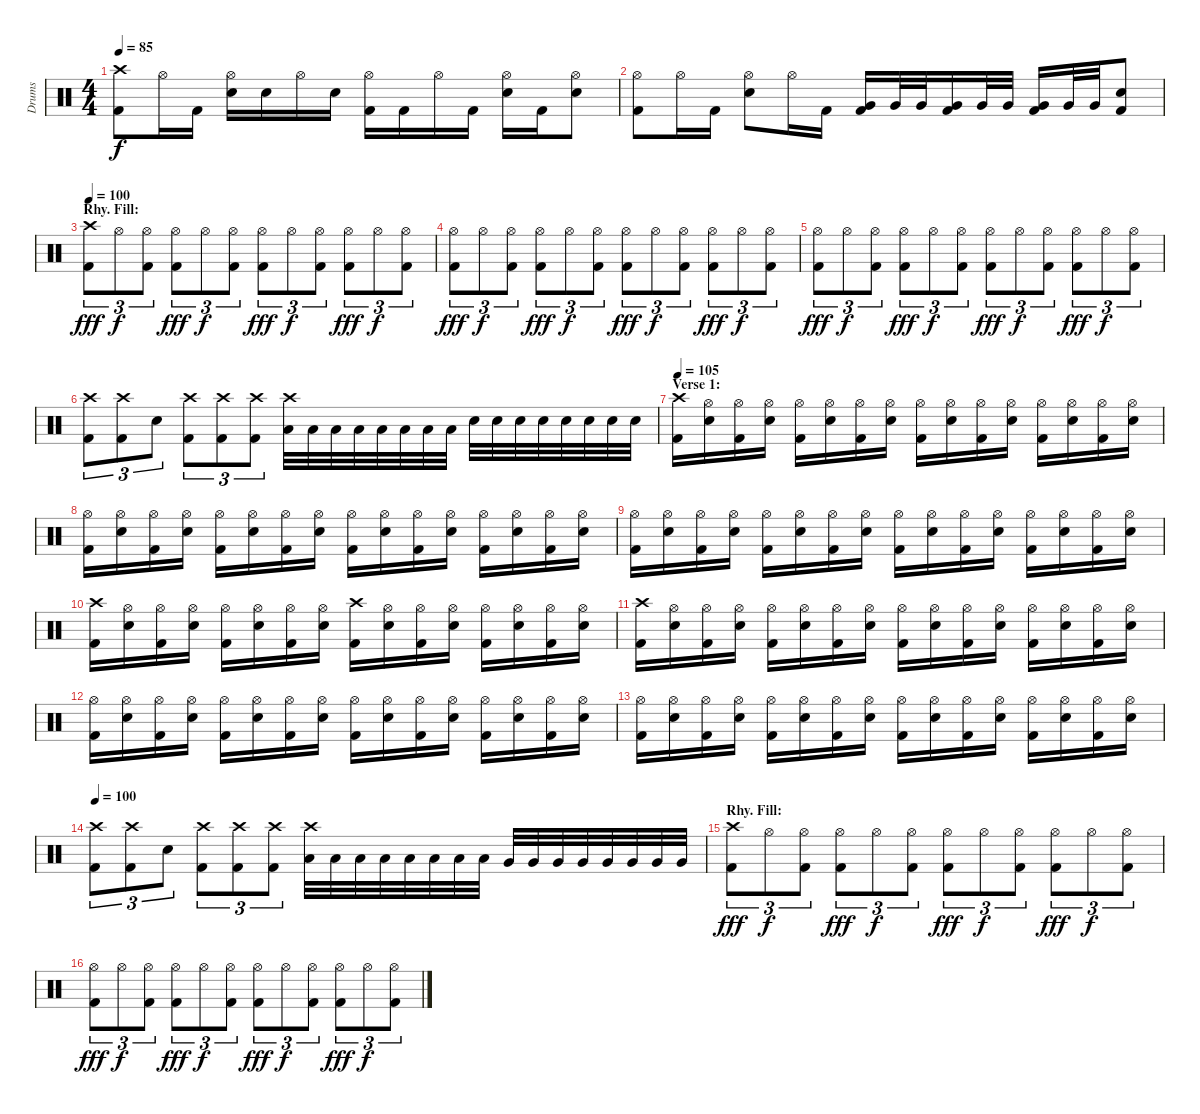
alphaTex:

\track ("Drums" "Drums") {instrument percussion}
\staff {score}
\articulation defaults
\ts (4 4)
\tempo 85
\clef neutral
\ks c
("Crash high (hit)" "Kick (hit) 2").8{dy f} "Hi-Hat (open)".16 "Kick (hit) 2".16 ("Hi-Hat (open)" "Electric Snare (hit)").16 "Electric Snare (hit)".16 "Hi-Hat (open)".16 "Electric Snare (hit)".16 ("Hi-Hat (open)" "Kick (hit) 2").16 "Kick (hit) 2".16 "Hi-Hat (open)".16 "Kick (hit) 2".16 ("Hi-Hat (open)" "Electric Snare (hit)").16 "Kick (hit) 2".16 ("Hi-Hat (open)" "Electric Snare (hit)").8 |
("Hi-Hat (open)" "Kick (hit) 2").8 "Hi-Hat (open)".16 "Kick (hit) 2".16 ("Hi-Hat (open)" "Electric Snare (hit)").8 "Hi-Hat (open)".16 "Kick (hit) 2".16 ("Very Low Tom (hit)" "Kick (hit) 2").16 "Very Low Tom (hit)".32 "Very Low Tom (hit)".32 ("Very Low Tom (hit)" "Kick (hit) 2").16 "Very Low Tom (hit)".32 "Very Low Tom (hit)".32 ("Very Low Tom (hit)" "Kick (hit) 2").16 "Very Low Tom (hit)".32 "Very Low Tom (hit)".32 ("Electric Snare (hit)" "Kick (hit) 2").8 |
\section ("" "Rhy. Fill:")
\tempo 100
("Crash high (hit)" "Kick (hit) 2").8{tu (3 2) dy fff} "Hi-Hat (open)".8{tu (3 2) dy f} ("Hi-Hat (open)" "Kick (hit) 2").8{tu (3 2)} ("Hi-Hat (open)" "Kick (hit) 2").8{tu (3 2) dy fff} "Hi-Hat (open)".8{tu (3 2) dy f} ("Hi-Hat (open)" "Kick (hit) 2").8{tu (3 2)} ("Hi-Hat (open)" "Kick (hit) 2").8{tu (3 2) dy fff} "Hi-Hat (open)".8{tu (3 2) dy f} ("Hi-Hat (open)" "Kick (hit) 2").8{tu (3 2)} ("Hi-Hat (open)" "Kick (hit) 2").8{tu (3 2) dy fff} "Hi-Hat (open)".8{tu (3 2) dy f} ("Hi-Hat (open)" "Kick (hit) 2").8{tu (3 2)} |
("Hi-Hat (open)" "Kick (hit) 2").8{tu (3 2) dy fff} "Hi-Hat (open)".8{tu (3 2) dy f} ("Hi-Hat (open)" "Kick (hit) 2").8{tu (3 2)} ("Hi-Hat (open)" "Kick (hit) 2").8{tu (3 2) dy fff} "Hi-Hat (open)".8{tu (3 2) dy f} ("Hi-Hat (open)" "Kick (hit) 2").8{tu (3 2)} ("Hi-Hat (open)" "Kick (hit) 2").8{tu (3 2) dy fff} "Hi-Hat (open)".8{tu (3 2) dy f} ("Hi-Hat (open)" "Kick (hit) 2").8{tu (3 2)} ("Hi-Hat (open)" "Kick (hit) 2").8{tu (3 2) dy fff} "Hi-Hat (open)".8{tu (3 2) dy f} ("Hi-Hat (open)" "Kick (hit) 2").8{tu (3 2)} |
("Hi-Hat (open)" "Kick (hit) 2").8{tu (3 2) dy fff} "Hi-Hat (open)".8{tu (3 2) dy f} ("Hi-Hat (open)" "Kick (hit) 2").8{tu (3 2)} ("Hi-Hat (open)" "Kick (hit) 2").8{tu (3 2) dy fff} "Hi-Hat (open)".8{tu (3 2) dy f} ("Hi-Hat (open)" "Kick (hit) 2").8{tu (3 2)} ("Hi-Hat (open)" "Kick (hit) 2").8{tu (3 2) dy fff} "Hi-Hat (open)".8{tu (3 2) dy f} ("Hi-Hat (open)" "Kick (hit) 2").8{tu (3 2)} ("Hi-Hat (open)" "Kick (hit) 2").8{tu (3 2) dy fff} "Hi-Hat (open)".8{tu (3 2) dy f} ("Hi-Hat (open)" "Kick (hit) 2").8{tu (3 2)} |
("Crash high (hit)" "Kick (hit) 2").8{tu (3 2)} ("Crash high (hit)" "Kick (hit) 2").8{tu (3 2)} "Electric Snare (hit)".8{tu (3 2)} ("Crash high (hit)" "Kick (hit) 2").8{tu (3 2)} ("Crash high (hit)" "Kick (hit) 2").8{tu (3 2)} ("Crash high (hit)" "Kick (hit) 2").8{tu (3 2)} ("Crash high (hit)" "Low Tom (hit)").32 "Low Tom (hit)".32 "Low Tom (hit)".32 "Low Tom (hit)".32 "Low Tom (hit)".32 "Low Tom (hit)".32 "Low Tom (hit)".32 "Low Tom (hit)".32 "Electric Snare (hit)".32 "Electric Snare (hit)".32 "Electric Snare (hit)".32 "Electric Snare (hit)".32 "Electric Snare (hit)".32 "Electric Snare (hit)".32 "Electric Snare (hit)".32 "Electric Snare (hit)".32 |
\section ("" "Verse 1:")
\tempo 105
("Crash high (hit)" "Kick (hit) 2").16 ("Hi-Hat (open)" "Electric Snare (hit)").16 ("Hi-Hat (open)" "Kick (hit) 2").16 ("Hi-Hat (open)" "Electric Snare (hit)").16 ("Hi-Hat (open)" "Kick (hit) 2").16 ("Hi-Hat (open)" "Electric Snare (hit)").16 ("Hi-Hat (open)" "Kick (hit) 2").16 ("Hi-Hat (open)" "Electric Snare (hit)").16 ("Hi-Hat (open)" "Kick (hit) 2").16 ("Hi-Hat (open)" "Electric Snare (hit)").16 ("Hi-Hat (open)" "Kick (hit) 2").16 ("Hi-Hat (open)" "Electric Snare (hit)").16 ("Hi-Hat (open)" "Kick (hit) 2").16 ("Hi-Hat (open)" "Electric Snare (hit)").16 ("Hi-Hat (open)" "Kick (hit) 2").16 ("Hi-Hat (open)" "Electric Snare (hit)").16 |
("Hi-Hat (open)" "Kick (hit) 2").16 ("Hi-Hat (open)" "Electric Snare (hit)").16 ("Hi-Hat (open)" "Kick (hit) 2").16 ("Hi-Hat (open)" "Electric Snare (hit)").16 ("Hi-Hat (open)" "Kick (hit) 2").16 ("Hi-Hat (open)" "Electric Snare (hit)").16 ("Hi-Hat (open)" "Kick (hit) 2").16 ("Hi-Hat (open)" "Electric Snare (hit)").16 ("Hi-Hat (open)" "Kick (hit) 2").16 ("Hi-Hat (open)" "Electric Snare (hit)").16 ("Hi-Hat (open)" "Kick (hit) 2").16 ("Hi-Hat (open)" "Electric Snare (hit)").16 ("Hi-Hat (open)" "Kick (hit) 2").16 ("Hi-Hat (open)" "Electric Snare (hit)").16 ("Hi-Hat (open)" "Kick (hit) 2").16 ("Hi-Hat (open)" "Electric Snare (hit)").16 |
("Hi-Hat (open)" "Kick (hit) 2").16 ("Hi-Hat (open)" "Electric Snare (hit)").16 ("Hi-Hat (open)" "Kick (hit) 2").16 ("Hi-Hat (open)" "Electric Snare (hit)").16 ("Hi-Hat (open)" "Kick (hit) 2").16 ("Hi-Hat (open)" "Electric Snare (hit)").16 ("Hi-Hat (open)" "Kick (hit) 2").16 ("Hi-Hat (open)" "Electric Snare (hit)").16 ("Hi-Hat (open)" "Kick (hit) 2").16 ("Hi-Hat (open)" "Electric Snare (hit)").16 ("Hi-Hat (open)" "Kick (hit) 2").16 ("Hi-Hat (open)" "Electric Snare (hit)").16 ("Hi-Hat (open)" "Kick (hit) 2").16 ("Hi-Hat (open)" "Electric Snare (hit)").16 ("Hi-Hat (open)" "Kick (hit) 2").16 ("Hi-Hat (open)" "Electric Snare (hit)").16 |
("Crash high (hit)" "Kick (hit) 2").16 ("Hi-Hat (open)" "Electric Snare (hit)").16 ("Hi-Hat (open)" "Kick (hit) 2").16 ("Hi-Hat (open)" "Electric Snare (hit)").16 ("Hi-Hat (open)" "Kick (hit) 2").16 ("Hi-Hat (open)" "Electric Snare (hit)").16 ("Hi-Hat (open)" "Kick (hit) 2").16 ("Hi-Hat (open)" "Electric Snare (hit)").16 ("Crash high (hit)" "Kick (hit) 2").16 ("Hi-Hat (open)" "Electric Snare (hit)").16 ("Hi-Hat (open)" "Kick (hit) 2").16 ("Hi-Hat (open)" "Electric Snare (hit)").16 ("Hi-Hat (open)" "Kick (hit) 2").16 ("Hi-Hat (open)" "Electric Snare (hit)").16 ("Hi-Hat (open)" "Kick (hit) 2").16 ("Hi-Hat (open)" "Electric Snare (hit)").16 |
("Crash high (hit)" "Kick (hit) 2").16 ("Hi-Hat (open)" "Electric Snare (hit)").16 ("Hi-Hat (open)" "Kick (hit) 2").16 ("Hi-Hat (open)" "Electric Snare (hit)").16 ("Hi-Hat (open)" "Kick (hit) 2").16 ("Hi-Hat (open)" "Electric Snare (hit)").16 ("Hi-Hat (open)" "Kick (hit) 2").16 ("Hi-Hat (open)" "Electric Snare (hit)").16 ("Hi-Hat (open)" "Kick (hit) 2").16 ("Hi-Hat (open)" "Electric Snare (hit)").16 ("Hi-Hat (open)" "Kick (hit) 2").16 ("Hi-Hat (open)" "Electric Snare (hit)").16 ("Hi-Hat (open)" "Kick (hit) 2").16 ("Hi-Hat (open)" "Electric Snare (hit)").16 ("Hi-Hat (open)" "Kick (hit) 2").16 ("Hi-Hat (open)" "Electric Snare (hit)").16 |
("Hi-Hat (open)" "Kick (hit) 2").16 ("Hi-Hat (open)" "Electric Snare (hit)").16 ("Hi-Hat (open)" "Kick (hit) 2").16 ("Hi-Hat (open)" "Electric Snare (hit)").16 ("Hi-Hat (open)" "Kick (hit) 2").16 ("Hi-Hat (open)" "Electric Snare (hit)").16 ("Hi-Hat (open)" "Kick (hit) 2").16 ("Hi-Hat (open)" "Electric Snare (hit)").16 ("Hi-Hat (open)" "Kick (hit) 2").16 ("Hi-Hat (open)" "Electric Snare (hit)").16 ("Hi-Hat (open)" "Kick (hit) 2").16 ("Hi-Hat (open)" "Electric Snare (hit)").16 ("Hi-Hat (open)" "Kick (hit) 2").16 ("Hi-Hat (open)" "Electric Snare (hit)").16 ("Hi-Hat (open)" "Kick (hit) 2").16 ("Hi-Hat (open)" "Electric Snare (hit)").16 |
("Hi-Hat (open)" "Kick (hit) 2").16 ("Hi-Hat (open)" "Electric Snare (hit)").16 ("Hi-Hat (open)" "Kick (hit) 2").16 ("Hi-Hat (open)" "Electric Snare (hit)").16 ("Hi-Hat (open)" "Kick (hit) 2").16 ("Hi-Hat (open)" "Electric Snare (hit)").16 ("Hi-Hat (open)" "Kick (hit) 2").16 ("Hi-Hat (open)" "Electric Snare (hit)").16 ("Hi-Hat (open)" "Kick (hit) 2").16 ("Hi-Hat (open)" "Electric Snare (hit)").16 ("Hi-Hat (open)" "Kick (hit) 2").16 ("Hi-Hat (open)" "Electric Snare (hit)").16 ("Hi-Hat (open)" "Kick (hit) 2").16 ("Hi-Hat (open)" "Electric Snare (hit)").16 ("Hi-Hat (open)" "Kick (hit) 2").16 ("Hi-Hat (open)" "Electric Snare (hit)").16 |
\tempo 100
("Crash high (hit)" "Kick (hit) 2").8{tu (3 2)} ("Crash high (hit)" "Kick (hit) 2").8{tu (3 2)} "Electric Snare (hit)".8{tu (3 2)} ("Crash high (hit)" "Kick (hit) 2").8{tu (3 2)} ("Crash high (hit)" "Kick (hit) 2").8{tu (3 2)} ("Crash high (hit)" "Kick (hit) 2").8{tu (3 2)} ("Crash high (hit)" "Low Tom (hit)").32 "Low Tom (hit)".32 "Low Tom (hit)".32 "Low Tom (hit)".32 "Low Tom (hit)".32 "Low Tom (hit)".32 "Low Tom (hit)".32 "Low Tom (hit)".32 "Very Low Tom (hit)".32 "Very Low Tom (hit)".32 "Very Low Tom (hit)".32 "Very Low Tom (hit)".32 "Very Low Tom (hit)".32 "Very Low Tom (hit)".32 "Very Low Tom (hit)".32 "Very Low Tom (hit)".32 |
\section ("" "Rhy. Fill:")
("Crash high (hit)" "Kick (hit) 2").8{tu (3 2) dy fff} "Hi-Hat (open)".8{tu (3 2) dy f} ("Hi-Hat (open)" "Kick (hit) 2").8{tu (3 2)} ("Hi-Hat (open)" "Kick (hit) 2").8{tu (3 2) dy fff} "Hi-Hat (open)".8{tu (3 2) dy f} ("Hi-Hat (open)" "Kick (hit) 2").8{tu (3 2)} ("Hi-Hat (open)" "Kick (hit) 2").8{tu (3 2) dy fff} "Hi-Hat (open)".8{tu (3 2) dy f} ("Hi-Hat (open)" "Kick (hit) 2").8{tu (3 2)} ("Hi-Hat (open)" "Kick (hit) 2").8{tu (3 2) dy fff} "Hi-Hat (open)".8{tu (3 2) dy f} ("Hi-Hat (open)" "Kick (hit) 2").8{tu (3 2)} |
("Hi-Hat (open)" "Kick (hit) 2").8{tu (3 2) dy fff} "Hi-Hat (open)".8{tu (3 2) dy f} ("Hi-Hat (open)" "Kick (hit) 2").8{tu (3 2)} ("Hi-Hat (open)" "Kick (hit) 2").8{tu (3 2) dy fff} "Hi-Hat (open)".8{tu (3 2) dy f} ("Hi-Hat (open)" "Kick (hit) 2").8{tu (3 2)} ("Hi-Hat (open)" "Kick (hit) 2").8{tu (3 2) dy fff} "Hi-Hat (open)".8{tu (3 2) dy f} ("Hi-Hat (open)" "Kick (hit) 2").8{tu (3 2)} ("Hi-Hat (open)" "Kick (hit) 2").8{tu (3 2) dy fff} "Hi-Hat (open)".8{tu (3 2) dy f} ("Hi-Hat (open)" "Kick (hit) 2").8{tu (3 2)}
